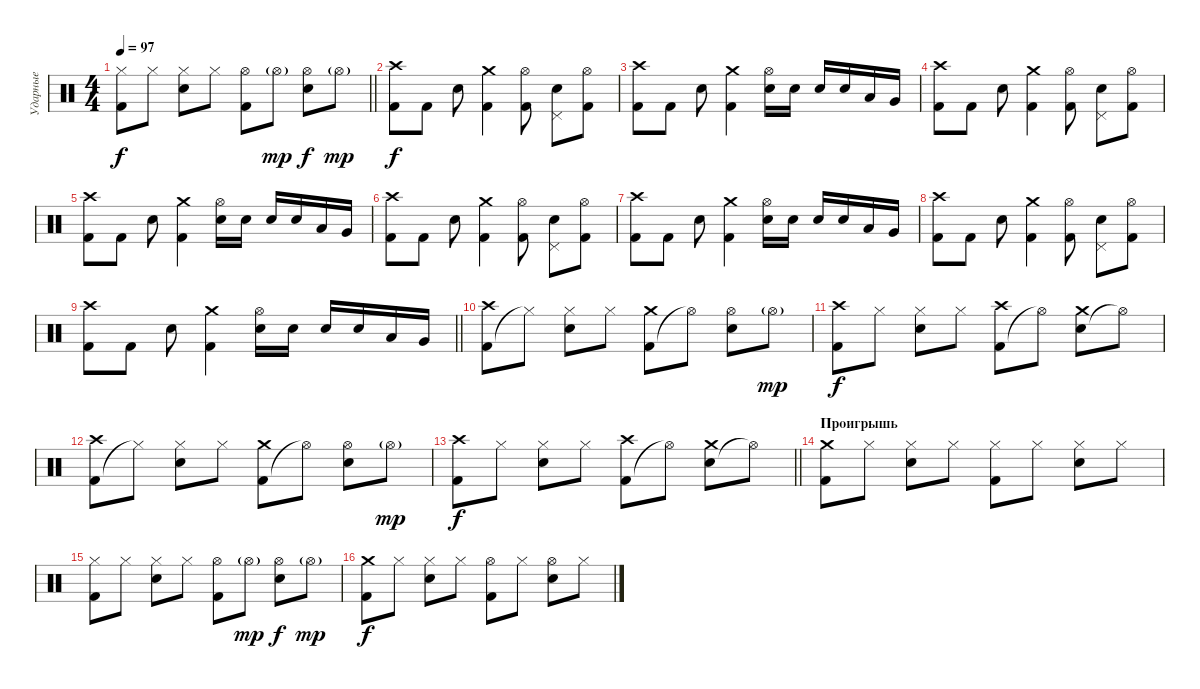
\track ("Ударные" "Ударные") {instrument percussion}
\staff {score}
\articulation defaults
\ts (4 4)
\tempo 97
\clef neutral
\barLineRight lightlight
\ks c
("Kick (hit) 2" "Hi-Hat (closed)").8{dy f} "Hi-Hat (closed)".8 ("Snare (hit) 2" "Hi-Hat (closed)").8 "Hi-Hat (closed)".8 ("Kick (hit) 2" "Hi-Hat (open)").8 "Hi-Hat (open)"{g}.8{dy mp} ("Snare (hit) 2" "Hi-Hat (open)").8{dy f} "Hi-Hat (open)"{g}.8{dy mp} |
\section ("" "")
("Crash high (hit)" "Kick (hit) 2").8{dy f} "Kick (hit) 2".8 "Snare (hit) 2".8 ("Crash medium (hit)" "Kick (hit) 2").4 ("Hi-Hat (open)" "Kick (hit) 2").8 ("Pedal Hi-Hat (hit)" "Snare (hit) 2").8 ("Hi-Hat (open)" "Kick (hit) 2").8 |
("Crash high (hit)" "Kick (hit) 2").8 "Kick (hit) 2".8 "Snare (hit) 2".8 ("Crash medium (hit)" "Kick (hit) 2").4 ("Hi-Hat (open)" "Snare (hit) 2").16 "Snare (hit) 2".16 "Snare (hit) 2".16 "Snare (hit) 2".16 "Low Tom (hit)".16 "Very Low Tom (hit)".16 |
("Crash high (hit)" "Kick (hit) 2").8 "Kick (hit) 2".8 "Snare (hit) 2".8 ("Crash medium (hit)" "Kick (hit) 2").4 ("Hi-Hat (open)" "Kick (hit) 2").8 ("Pedal Hi-Hat (hit)" "Snare (hit) 2").8 ("Hi-Hat (open)" "Kick (hit) 2").8 |
("Crash high (hit)" "Kick (hit) 2").8 "Kick (hit) 2".8 "Snare (hit) 2".8 ("Crash medium (hit)" "Kick (hit) 2").4 ("Hi-Hat (open)" "Snare (hit) 2").16 "Snare (hit) 2".16 "Snare (hit) 2".16 "Snare (hit) 2".16 "Low Tom (hit)".16 "Very Low Tom (hit)".16 |
("Crash high (hit)" "Kick (hit) 2").8 "Kick (hit) 2".8 "Snare (hit) 2".8 ("Crash medium (hit)" "Kick (hit) 2").4 ("Hi-Hat (open)" "Kick (hit) 2").8 ("Pedal Hi-Hat (hit)" "Snare (hit) 2").8 ("Hi-Hat (open)" "Kick (hit) 2").8 |
("Crash high (hit)" "Kick (hit) 2").8 "Kick (hit) 2".8 "Snare (hit) 2".8 ("Crash medium (hit)" "Kick (hit) 2").4 ("Hi-Hat (open)" "Snare (hit) 2").16 "Snare (hit) 2".16 "Snare (hit) 2".16 "Snare (hit) 2".16 "Low Tom (hit)".16 "Very Low Tom (hit)".16 |
("Crash high (hit)" "Kick (hit) 2").8 "Kick (hit) 2".8 "Snare (hit) 2".8 ("Crash medium (hit)" "Kick (hit) 2").4 ("Hi-Hat (open)" "Kick (hit) 2").8 ("Pedal Hi-Hat (hit)" "Snare (hit) 2").8 ("Hi-Hat (open)" "Kick (hit) 2").8 |
\barLineRight lightlight
("Crash high (hit)" "Kick (hit) 2").8 "Kick (hit) 2".8 "Snare (hit) 2".8 ("Crash medium (hit)" "Kick (hit) 2").4 ("Hi-Hat (open)" "Snare (hit) 2").16 "Snare (hit) 2".16 "Snare (hit) 2".16 "Snare (hit) 2".16 "Low Tom (hit)".16 "Very Low Tom (hit)".16 |
\section ("" "")
("Kick (hit) 2" "Crash high (hit)").8 "Hi-Hat (closed)"{t}.8 ("Snare (hit) 2" "Hi-Hat (closed)").8 "Hi-Hat (closed)".8 ("Kick (hit) 2" "Crash medium (hit)").8 "Hi-Hat (open)"{t}.8 ("Snare (hit) 2" "Hi-Hat (open)").8 "Hi-Hat (open)"{g}.8{dy mp} |
("Kick (hit) 2" "Crash high (hit)").8{dy f} "Hi-Hat (closed)".8 ("Snare (hit) 2" "Hi-Hat (closed)").8 "Hi-Hat (closed)".8 ("Kick (hit) 2" "Crash high (hit)").8 "Hi-Hat (open)"{t}.8 ("Snare (hit) 2" "Crash medium (hit)").8 "Hi-Hat (open)"{t}.8 |
("Kick (hit) 2" "Crash high (hit)").8 "Hi-Hat (closed)"{t}.8 ("Snare (hit) 2" "Hi-Hat (closed)").8 "Hi-Hat (closed)".8 ("Kick (hit) 2" "Crash medium (hit)").8 "Hi-Hat (open)"{t}.8 ("Snare (hit) 2" "Hi-Hat (open)").8 "Hi-Hat (open)"{g}.8{dy mp} |
\barLineRight lightlight
("Kick (hit) 2" "Crash high (hit)").8{dy f} "Hi-Hat (closed)".8 ("Snare (hit) 2" "Hi-Hat (closed)").8 "Hi-Hat (closed)".8 ("Kick (hit) 2" "Crash high (hit)").8 "Hi-Hat (open)"{t}.8 ("Snare (hit) 2" "Crash medium (hit)").8 "Hi-Hat (open)"{t}.8 |
\section ("" "Проигрышь")
("Crash medium (hit)" "Kick (hit) 2").8 "Hi-Hat (closed)".8 ("Snare (hit) 2" "Hi-Hat (closed)").8 "Hi-Hat (closed)".8 ("Kick (hit) 2" "Hi-Hat (closed)").8 "Hi-Hat (closed)".8 ("Snare (hit) 2" "Hi-Hat (closed)").8 "Hi-Hat (closed)".8 |
("Kick (hit) 2" "Hi-Hat (closed)").8 "Hi-Hat (closed)".8 ("Snare (hit) 2" "Hi-Hat (closed)").8 "Hi-Hat (closed)".8 ("Kick (hit) 2" "Hi-Hat (open)").8 "Hi-Hat (open)"{g}.8{dy mp} ("Snare (hit) 2" "Hi-Hat (open)").8{dy f} "Hi-Hat (open)"{g}.8{dy mp} |
("Crash medium (hit)" "Kick (hit) 2").8{dy f} "Hi-Hat (closed)".8 ("Snare (hit) 2" "Hi-Hat (closed)").8 "Hi-Hat (closed)".8 ("Kick (hit) 2" "Hi-Hat (open)").8 "Hi-Hat (closed)".8 ("Snare (hit) 2" "Hi-Hat (open)").8 "Hi-Hat (closed)".8
